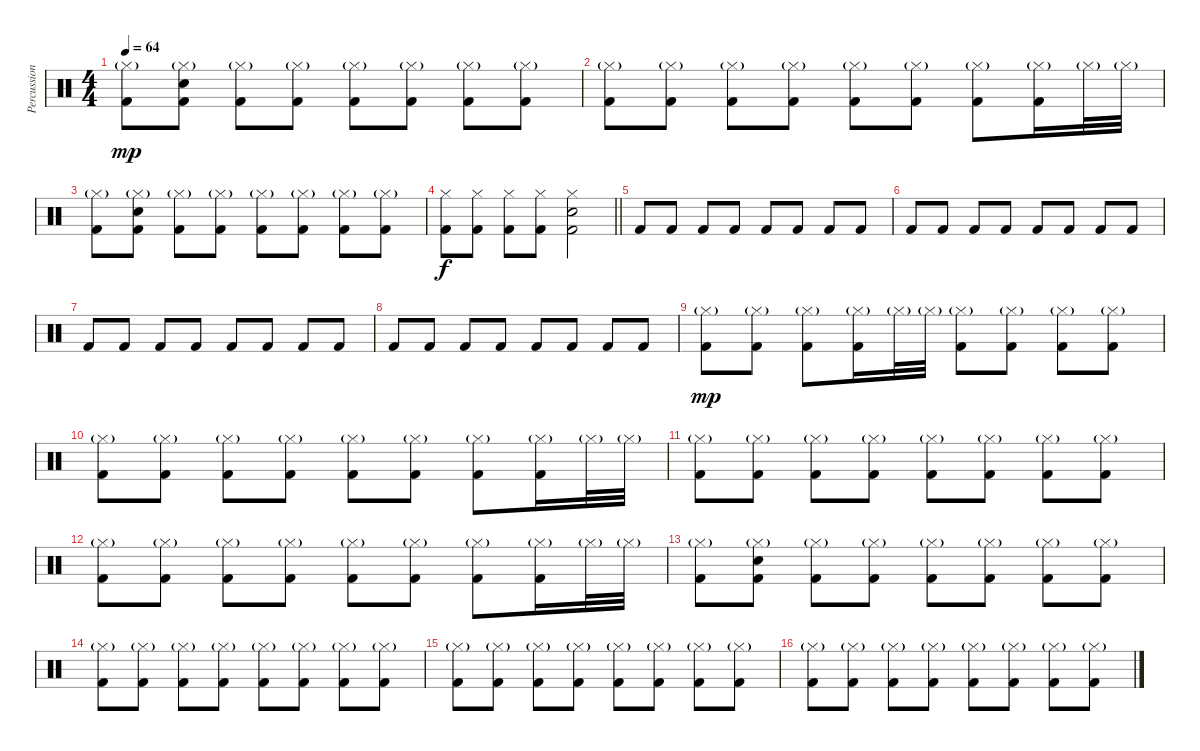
\track ("Percussion" "Percussion") {instrument percussion}
\staff {score}
\articulation defaults
\ts (4 4)
\tempo 64
\clef neutral
\ks c
("Hi-Hat (closed)"{g} "Kick (hit) 2").8{dy mp} ("Hi-Hat (closed)"{g} "Snare (hit) 2" "Kick (hit) 2").8 ("Hi-Hat (closed)"{g} "Kick (hit) 2").8 ("Hi-Hat (closed)"{g} "Kick (hit) 2").8 ("Hi-Hat (closed)"{g} "Kick (hit) 2").8 ("Hi-Hat (closed)"{g} "Kick (hit) 2").8 ("Hi-Hat (closed)"{g} "Kick (hit) 2").8 ("Hi-Hat (closed)"{g} "Kick (hit) 2").8 |
("Hi-Hat (closed)"{g} "Kick (hit) 2").8 ("Hi-Hat (closed)"{g} "Kick (hit) 2").8 ("Hi-Hat (closed)"{g} "Kick (hit) 2").8 ("Hi-Hat (closed)"{g} "Kick (hit) 2").8 ("Hi-Hat (closed)"{g} "Kick (hit) 2").8 ("Hi-Hat (closed)"{g} "Kick (hit) 2").8 ("Hi-Hat (closed)"{g} "Kick (hit) 2").8 ("Hi-Hat (closed)"{g} "Kick (hit) 2").16 "Hi-Hat (closed)"{g}.32 "Hi-Hat (closed)"{g}.32 |
("Hi-Hat (closed)"{g} "Kick (hit) 2").8 ("Hi-Hat (closed)"{g} "Snare (hit) 2" "Kick (hit) 2").8 ("Hi-Hat (closed)"{g} "Kick (hit) 2").8 ("Hi-Hat (closed)"{g} "Kick (hit) 2").8 ("Hi-Hat (closed)"{g} "Kick (hit) 2").8 ("Hi-Hat (closed)"{g} "Kick (hit) 2").8 ("Hi-Hat (closed)"{g} "Kick (hit) 2").8 ("Hi-Hat (closed)"{g} "Kick (hit) 2").8 |
\barLineRight lightlight
("Hi-Hat (closed)" "Kick (hit) 2").8{dy f} ("Hi-Hat (closed)" "Kick (hit) 2").8 ("Hi-Hat (closed)" "Kick (hit) 2").8 ("Hi-Hat (closed)" "Kick (hit) 2").8 ("Hi-Hat (closed)" "Snare (hit) 2" "Kick (hit) 2").2 |
"Kick (hit) 2".8 "Kick (hit) 2".8 "Kick (hit) 2".8 "Kick (hit) 2".8 "Kick (hit) 2".8 "Kick (hit) 2".8 "Kick (hit) 2".8 "Kick (hit) 2".8 |
"Kick (hit) 2".8 "Kick (hit) 2".8 "Kick (hit) 2".8 "Kick (hit) 2".8 "Kick (hit) 2".8 "Kick (hit) 2".8 "Kick (hit) 2".8 "Kick (hit) 2".8 |
"Kick (hit) 2".8 "Kick (hit) 2".8 "Kick (hit) 2".8 "Kick (hit) 2".8 "Kick (hit) 2".8 "Kick (hit) 2".8 "Kick (hit) 2".8 "Kick (hit) 2".8 |
"Kick (hit) 2".8 "Kick (hit) 2".8 "Kick (hit) 2".8 "Kick (hit) 2".8 "Kick (hit) 2".8 "Kick (hit) 2".8 "Kick (hit) 2".8 "Kick (hit) 2".8 |
("Hi-Hat (closed)"{g} "Kick (hit) 2").8{dy mp} ("Hi-Hat (closed)"{g} "Kick (hit) 2").8 ("Hi-Hat (closed)"{g} "Kick (hit) 2").8 ("Hi-Hat (closed)"{g} "Kick (hit) 2").16 "Hi-Hat (closed)"{g}.32 "Hi-Hat (closed)"{g}.32 ("Hi-Hat (closed)"{g} "Kick (hit) 2").8 ("Hi-Hat (closed)"{g} "Kick (hit) 2").8 ("Hi-Hat (closed)"{g} "Kick (hit) 2").8 ("Hi-Hat (closed)"{g} "Kick (hit) 2").8 |
("Hi-Hat (closed)"{g} "Kick (hit) 2").8 ("Hi-Hat (closed)"{g} "Kick (hit) 2").8 ("Hi-Hat (closed)"{g} "Kick (hit) 2").8 ("Hi-Hat (closed)"{g} "Kick (hit) 2").8 ("Hi-Hat (closed)"{g} "Kick (hit) 2").8 ("Hi-Hat (closed)"{g} "Kick (hit) 2").8 ("Hi-Hat (closed)"{g} "Kick (hit) 2").8 ("Hi-Hat (closed)"{g} "Kick (hit) 2").16 "Hi-Hat (closed)"{g}.32 "Hi-Hat (closed)"{g}.32 |
("Hi-Hat (closed)"{g} "Kick (hit) 2").8 ("Hi-Hat (closed)"{g} "Kick (hit) 2").8 ("Hi-Hat (closed)"{g} "Kick (hit) 2").8 ("Hi-Hat (closed)"{g} "Kick (hit) 2").8 ("Hi-Hat (closed)"{g} "Kick (hit) 2").8 ("Hi-Hat (closed)"{g} "Kick (hit) 2").8 ("Hi-Hat (closed)"{g} "Kick (hit) 2").8 ("Hi-Hat (closed)"{g} "Kick (hit) 2").8 |
("Hi-Hat (closed)"{g} "Kick (hit) 2").8 ("Hi-Hat (closed)"{g} "Kick (hit) 2").8 ("Hi-Hat (closed)"{g} "Kick (hit) 2").8 ("Hi-Hat (closed)"{g} "Kick (hit) 2").8 ("Hi-Hat (closed)"{g} "Kick (hit) 2").8 ("Hi-Hat (closed)"{g} "Kick (hit) 2").8 ("Hi-Hat (closed)"{g} "Kick (hit) 2").8 ("Hi-Hat (closed)"{g} "Kick (hit) 2").16 "Hi-Hat (closed)"{g}.32 "Hi-Hat (closed)"{g}.32 |
("Hi-Hat (closed)"{g} "Kick (hit) 2").8{volume 0} ("Hi-Hat (closed)"{g} "Snare (hit) 2" "Kick (hit) 2").8 ("Hi-Hat (closed)"{g} "Kick (hit) 2").8 ("Hi-Hat (closed)"{g} "Kick (hit) 2").8 ("Hi-Hat (closed)"{g} "Kick (hit) 2").8 ("Hi-Hat (closed)"{g} "Kick (hit) 2").8 ("Hi-Hat (closed)"{g} "Kick (hit) 2").8 ("Hi-Hat (closed)"{g} "Kick (hit) 2").8 |
("Hi-Hat (closed)"{g} "Kick (hit) 2").8 ("Hi-Hat (closed)"{g} "Kick (hit) 2").8 ("Hi-Hat (closed)"{g} "Kick (hit) 2").8 ("Hi-Hat (closed)"{g} "Kick (hit) 2").8 ("Hi-Hat (closed)"{g} "Kick (hit) 2").8 ("Hi-Hat (closed)"{g} "Kick (hit) 2").8 ("Hi-Hat (closed)"{g} "Kick (hit) 2").8 ("Hi-Hat (closed)"{g} "Kick (hit) 2").8 |
("Hi-Hat (closed)"{g} "Kick (hit) 2").8 ("Hi-Hat (closed)"{g} "Kick (hit) 2").8 ("Hi-Hat (closed)"{g} "Kick (hit) 2").8 ("Hi-Hat (closed)"{g} "Kick (hit) 2").8 ("Hi-Hat (closed)"{g} "Kick (hit) 2").8 ("Hi-Hat (closed)"{g} "Kick (hit) 2").8 ("Hi-Hat (closed)"{g} "Kick (hit) 2").8 ("Hi-Hat (closed)"{g} "Kick (hit) 2").8 |
("Hi-Hat (closed)"{g} "Kick (hit) 2").8 ("Hi-Hat (closed)"{g} "Kick (hit) 2").8 ("Hi-Hat (closed)"{g} "Kick (hit) 2").8 ("Hi-Hat (closed)"{g} "Kick (hit) 2").8 ("Hi-Hat (closed)"{g} "Kick (hit) 2").8 ("Hi-Hat (closed)"{g} "Kick (hit) 2").8 ("Hi-Hat (closed)"{g} "Kick (hit) 2").8 ("Hi-Hat (closed)"{g} "Kick (hit) 2").8
